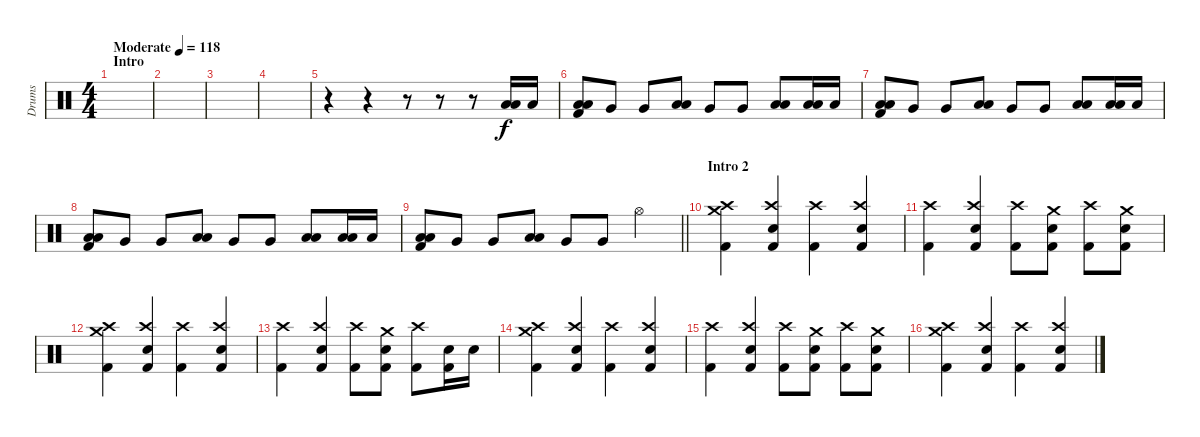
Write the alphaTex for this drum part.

\track ("Drums" "Drums") {instrument percussion}
\staff {score}
\articulation defaults
\ts (4 4)
\section ("" "Intro")
\tempo (118 "Moderate")
\clef neutral
\ks c
|
|
|
|
r.4 r.4 r.8 r.8 r.8 ("Low Tom (hit)" "Low Floor Tom (hit)").16 "Low Tom (hit)".16 |
("Low Tom (hit)" "Low Floor Tom (hit)" "Kick (hit) 2").8 "Very Low Tom (hit)".8 "Very Low Tom (hit)".8 ("Low Tom (hit)" "Low Floor Tom (hit)").8 "Very Low Tom (hit)".8 "Very Low Tom (hit)".8 ("Low Tom (hit)" "Low Floor Tom (hit)").8 ("Low Tom (hit)" "Low Floor Tom (hit)").16 "Low Tom (hit)".16 |
("Low Tom (hit)" "Low Floor Tom (hit)" "Kick (hit) 2").8 "Very Low Tom (hit)".8 "Very Low Tom (hit)".8 ("Low Tom (hit)" "Low Floor Tom (hit)").8 "Very Low Tom (hit)".8 "Very Low Tom (hit)".8 ("Low Tom (hit)" "Low Floor Tom (hit)").8 ("Low Tom (hit)" "Low Floor Tom (hit)").16 "Low Tom (hit)".16 |
("Low Tom (hit)" "Low Floor Tom (hit)" "Kick (hit) 2").8 "Very Low Tom (hit)".8 "Very Low Tom (hit)".8 ("Low Tom (hit)" "Low Floor Tom (hit)").8 "Very Low Tom (hit)".8 "Very Low Tom (hit)".8 ("Low Tom (hit)" "Low Floor Tom (hit)").8 ("Low Tom (hit)" "Low Floor Tom (hit)").16 "Low Tom (hit)".16 |
\barLineRight lightlight
("Low Tom (hit)" "Low Floor Tom (hit)" "Kick (hit) 2").8 "Very Low Tom (hit)".8 "Very Low Tom (hit)".8 ("Low Tom (hit)" "Low Floor Tom (hit)").8 "Very Low Tom (hit)".8 "Very Low Tom (hit)".8 "Hi-Hat (open)".4 |
\section ("" "Intro 2")
("Crash medium (hit)" "Crash high (hit)" "Kick (hit) 2").4 ("Crash high (hit)" "Snare (hit) 2" "Kick (hit) 2").4 ("Crash high (hit)" "Kick (hit) 2").4 ("Crash high (hit)" "Snare (hit) 2" "Kick (hit) 2").4 |
("Crash high (hit)" "Kick (hit) 2").4 ("Crash high (hit)" "Snare (hit) 2" "Kick (hit) 2").4 ("Crash high (hit)" "Kick (hit) 2").8 ("Crash medium (hit)" "Snare (hit) 2" "Kick (hit) 2").8 ("Crash high (hit)" "Kick (hit) 2").8 ("Crash medium (hit)" "Snare (hit) 2" "Kick (hit) 2").8 |
("Crash medium (hit)" "Crash high (hit)" "Kick (hit) 2").4 ("Crash high (hit)" "Snare (hit) 2" "Kick (hit) 2").4 ("Crash high (hit)" "Kick (hit) 2").4 ("Crash high (hit)" "Snare (hit) 2" "Kick (hit) 2").4 |
("Crash high (hit)" "Kick (hit) 2").4 ("Crash high (hit)" "Snare (hit) 2" "Kick (hit) 2").4 ("Crash high (hit)" "Kick (hit) 2").8 ("Crash medium (hit)" "Snare (hit) 2" "Kick (hit) 2").8 ("Crash high (hit)" "Kick (hit) 2").8 ("Snare (hit) 2" "Kick (hit) 2").16 "Snare (hit) 2".16 |
("Crash medium (hit)" "Crash high (hit)" "Kick (hit) 2").4 ("Crash high (hit)" "Snare (hit) 2" "Kick (hit) 2").4 ("Crash high (hit)" "Kick (hit) 2").4 ("Crash high (hit)" "Snare (hit) 2" "Kick (hit) 2").4 |
("Crash high (hit)" "Kick (hit) 2").4 ("Crash high (hit)" "Snare (hit) 2" "Kick (hit) 2").4 ("Crash high (hit)" "Kick (hit) 2").8 ("Crash medium (hit)" "Snare (hit) 2" "Kick (hit) 2").8 ("Crash high (hit)" "Kick (hit) 2").8 ("Crash medium (hit)" "Snare (hit) 2" "Kick (hit) 2").8 |
("Crash medium (hit)" "Crash high (hit)" "Kick (hit) 2").4 ("Crash high (hit)" "Snare (hit) 2" "Kick (hit) 2").4 ("Crash high (hit)" "Kick (hit) 2").4 ("Crash high (hit)" "Snare (hit) 2" "Kick (hit) 2").4
